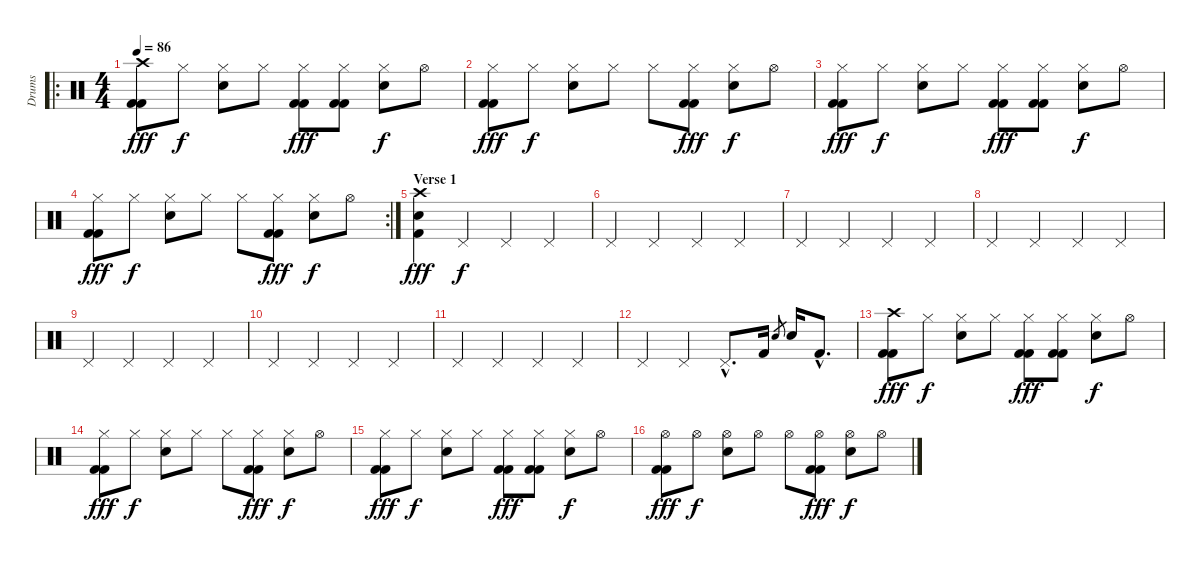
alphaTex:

\track ("Drums" "Drums") {instrument percussion}
\staff {score}
\articulation defaults
\ro
\ts (4 4)
\tempo 86
\clef neutral
\ks c
("Crash high (hit)" "Kick (hit) 2" "Kick (hit) 2").8{dy fff} "Hi-Hat (closed)".8{dy f} ("Hi-Hat (closed)" "Electric Snare (hit)").8 "Hi-Hat (closed)".8 ("Hi-Hat (closed)" "Kick (hit) 2" "Kick (hit) 2").8{dy fff} ("Hi-Hat (closed)" "Kick (hit) 2" "Kick (hit) 2").8 ("Hi-Hat (closed)" "Electric Snare (hit)").8{dy f} "Hi-Hat (open)".8 |
("Hi-Hat (closed)" "Kick (hit) 2" "Kick (hit) 2").8{dy fff} "Hi-Hat (closed)".8{dy f} ("Hi-Hat (closed)" "Electric Snare (hit)").8 "Hi-Hat (closed)".8 "Hi-Hat (closed)".8 ("Hi-Hat (closed)" "Kick (hit) 2" "Kick (hit) 2").8{dy fff} ("Hi-Hat (closed)" "Electric Snare (hit)").8{dy f} "Hi-Hat (open)".8 |
("Hi-Hat (closed)" "Kick (hit) 2" "Kick (hit) 2").8{dy fff} "Hi-Hat (closed)".8{dy f} ("Hi-Hat (closed)" "Electric Snare (hit)").8 "Hi-Hat (closed)".8 ("Hi-Hat (closed)" "Kick (hit) 2" "Kick (hit) 2").8{dy fff} ("Hi-Hat (closed)" "Kick (hit) 2" "Kick (hit) 2").8 ("Hi-Hat (closed)" "Electric Snare (hit)").8{dy f} "Hi-Hat (open)".8 |
\rc 2
("Hi-Hat (closed)" "Kick (hit) 2" "Kick (hit) 2").8{dy fff} "Hi-Hat (closed)".8{dy f} ("Hi-Hat (closed)" "Electric Snare (hit)").8 "Hi-Hat (closed)".8 "Hi-Hat (closed)".8 ("Hi-Hat (closed)" "Kick (hit) 2" "Kick (hit) 2").8{dy fff} ("Hi-Hat (closed)" "Electric Snare (hit)").8{dy f} "Hi-Hat (open)".8 |
\section ("" "Verse 1")
("Crash high (hit)" "Kick (hit) 2" "Electric Snare (hit)").4{dy fff} "Pedal Hi-Hat (hit)".4{dy f} "Pedal Hi-Hat (hit)".4 "Pedal Hi-Hat (hit)".4 |
"Pedal Hi-Hat (hit)".4 "Pedal Hi-Hat (hit)".4 "Pedal Hi-Hat (hit)".4 "Pedal Hi-Hat (hit)".4 |
"Pedal Hi-Hat (hit)".4 "Pedal Hi-Hat (hit)".4 "Pedal Hi-Hat (hit)".4 "Pedal Hi-Hat (hit)".4 |
"Pedal Hi-Hat (hit)".4 "Pedal Hi-Hat (hit)".4 "Pedal Hi-Hat (hit)".4 "Pedal Hi-Hat (hit)".4 |
"Pedal Hi-Hat (hit)".4 "Pedal Hi-Hat (hit)".4 "Pedal Hi-Hat (hit)".4 "Pedal Hi-Hat (hit)".4 |
"Pedal Hi-Hat (hit)".4 "Pedal Hi-Hat (hit)".4 "Pedal Hi-Hat (hit)".4 "Pedal Hi-Hat (hit)".4 |
"Pedal Hi-Hat (hit)".4 "Pedal Hi-Hat (hit)".4 "Pedal Hi-Hat (hit)".4 "Pedal Hi-Hat (hit)".4 |
"Pedal Hi-Hat (hit)".4 "Pedal Hi-Hat (hit)".4 "Pedal Hi-Hat (hit)"{hac}.8{d} "Kick (hit) 2".16 "Electric Snare (hit)".8{gr} "Electric Snare (hit)".16 "Kick (hit) 2"{hac}.8{d} |
("Crash high (hit)" "Kick (hit) 2" "Kick (hit) 2").8{dy fff} "Hi-Hat (closed)".8{dy f} ("Hi-Hat (closed)" "Electric Snare (hit)").8 "Hi-Hat (closed)".8 ("Hi-Hat (closed)" "Kick (hit) 2" "Kick (hit) 2").8{dy fff} ("Hi-Hat (closed)" "Kick (hit) 2" "Kick (hit) 2").8 ("Hi-Hat (closed)" "Electric Snare (hit)").8{dy f} "Hi-Hat (open)".8 |
("Hi-Hat (closed)" "Kick (hit) 2" "Kick (hit) 2").8{dy fff} "Hi-Hat (closed)".8{dy f} ("Hi-Hat (closed)" "Electric Snare (hit)").8 "Hi-Hat (closed)".8 "Hi-Hat (closed)".8 ("Hi-Hat (closed)" "Kick (hit) 2" "Kick (hit) 2").8{dy fff} ("Hi-Hat (closed)" "Electric Snare (hit)").8{dy f} "Hi-Hat (open)".8 |
("Hi-Hat (closed)" "Kick (hit) 2" "Kick (hit) 2").8{dy fff} "Hi-Hat (closed)".8{dy f} ("Hi-Hat (closed)" "Electric Snare (hit)").8 "Hi-Hat (closed)".8 ("Hi-Hat (closed)" "Kick (hit) 2" "Kick (hit) 2").8{dy fff} ("Hi-Hat (closed)" "Kick (hit) 2" "Kick (hit) 2").8 ("Hi-Hat (closed)" "Electric Snare (hit)").8{dy f} "Hi-Hat (open)".8 |
("Hi-Hat (open)" "Kick (hit) 2" "Kick (hit) 2").8{dy fff} "Hi-Hat (open)".8{dy f} ("Hi-Hat (open)" "Electric Snare (hit)").8 "Hi-Hat (open)".8 "Hi-Hat (open)".8 ("Hi-Hat (open)" "Kick (hit) 2" "Kick (hit) 2").8{dy fff} ("Hi-Hat (open)" "Electric Snare (hit)").8{dy f} "Hi-Hat (open)".8
